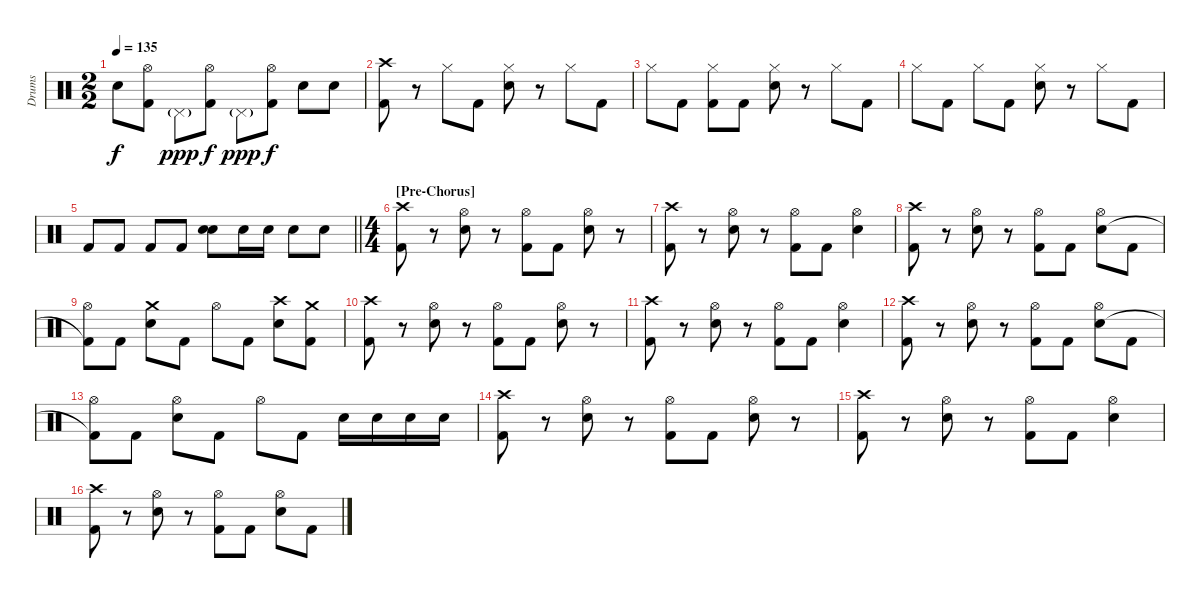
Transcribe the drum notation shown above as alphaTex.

\track ("Drums" "Drums") {instrument percussion}
\staff {score}
\articulation defaults
\ts (2 2)
\tempo 135
\clef neutral
\ks c "Snare (hit) 2".8{dy f}
("Hi-Hat (open)" "Kick (hit) 2").8 "Pedal Hi-Hat (hit)"{g}.8{dy ppp} ("Hi-Hat (open)" "Kick (hit) 2").8{dy f} "Pedal Hi-Hat (hit)"{g}.8{dy ppp} ("Hi-Hat (open)" "Kick (hit) 2").8{dy f} "Snare (hit) 2".8 "Snare (hit) 2".8 |
("Crash high (hit)" "Kick (hit) 2").8 r.8 "Hi-Hat (closed)".8 "Kick (hit) 2".8 ("Hi-Hat (closed)" "Snare (hit) 2").8 r.8 "Hi-Hat (closed)".8 "Kick (hit) 2".8 |
"Hi-Hat (closed)".8 "Kick (hit) 2".8 ("Hi-Hat (closed)" "Kick (hit) 2").8 "Kick (hit) 2".8 ("Hi-Hat (closed)" "Snare (hit) 2").8 r.8 "Hi-Hat (closed)".8 "Kick (hit) 2".8 |
"Hi-Hat (closed)".8 "Kick (hit) 2".8 "Hi-Hat (closed)".8 "Kick (hit) 2".8 ("Hi-Hat (closed)" "Snare (hit) 2").8 r.8 "Hi-Hat (closed)".8 "Kick (hit) 2".8 |
\barLineRight lightlight "Kick (hit) 2".8 "Kick (hit) 2".8 "Kick (hit) 2".8 "Kick (hit) 2".8
("Snare (hit) 2" "Snare (hit) 2").8{bd 480} "Snare (hit) 2".16 "Snare (hit) 2".16 "Snare (hit) 2".8 "Snare (hit) 2".8 |
\ts (4 4)
\section ("" "[Pre-Chorus]")
("Crash high (hit)" "Kick (hit) 2").8 r.8 ("Hi-Hat (open)" "Snare (hit) 2").8 r.8 ("Hi-Hat (open)" "Kick (hit) 2").8 "Kick (hit) 2".8 ("Hi-Hat (open)" "Snare (hit) 2").8 r.8 |
("Crash high (hit)" "Kick (hit) 2").8 r.8 ("Hi-Hat (open)" "Snare (hit) 2").8 r.8 ("Hi-Hat (open)" "Kick (hit) 2").8 "Kick (hit) 2".8 ("Hi-Hat (open)" "Snare (hit) 2").4 |
("Crash high (hit)" "Kick (hit) 2").8 r.8 ("Hi-Hat (open)" "Snare (hit) 2").8 r.8 ("Hi-Hat (open)" "Kick (hit) 2").8 "Kick (hit) 2".8 ("Hi-Hat (open)" "Snare (hit) 2").8 "Kick (hit) 2".8 |
("Hi-Hat (open)" "Kick (hit) 2"{t}).8 "Kick (hit) 2".8 ("Crash medium (hit)" "Snare (hit) 2").8 "Kick (hit) 2".8 "Hi-Hat (open)".8 "Kick (hit) 2".8 ("Crash high (hit)" "Snare (hit) 2").8 ("Crash medium (hit)" "Kick (hit) 2").8 |
("Crash high (hit)" "Kick (hit) 2").8 r.8 ("Hi-Hat (open)" "Snare (hit) 2").8 r.8 ("Hi-Hat (open)" "Kick (hit) 2").8 "Kick (hit) 2".8 ("Hi-Hat (open)" "Snare (hit) 2").8 r.8 |
("Crash high (hit)" "Kick (hit) 2").8 r.8 ("Hi-Hat (open)" "Snare (hit) 2").8 r.8 ("Hi-Hat (open)" "Kick (hit) 2").8 "Kick (hit) 2".8 ("Hi-Hat (open)" "Snare (hit) 2").4 |
("Crash high (hit)" "Kick (hit) 2").8 r.8 ("Hi-Hat (open)" "Snare (hit) 2").8 r.8 ("Hi-Hat (open)" "Kick (hit) 2").8 "Kick (hit) 2".8 ("Hi-Hat (open)" "Snare (hit) 2").8 "Kick (hit) 2".8 |
("Hi-Hat (open)" "Kick (hit) 2"{t}).8 "Kick (hit) 2".8 ("Hi-Hat (open)" "Snare (hit) 2").8 "Kick (hit) 2".8 "Hi-Hat (open)".8 "Kick (hit) 2".8 "Snare (hit) 2".16 "Snare (hit) 2".16 "Snare (hit) 2".16 "Snare (hit) 2".16 |
("Crash high (hit)" "Kick (hit) 2").8 r.8 ("Hi-Hat (open)" "Snare (hit) 2").8 r.8 ("Hi-Hat (open)" "Kick (hit) 2").8 "Kick (hit) 2".8 ("Hi-Hat (open)" "Snare (hit) 2").8 r.8 |
("Crash high (hit)" "Kick (hit) 2").8 r.8 ("Hi-Hat (open)" "Snare (hit) 2").8 r.8 ("Hi-Hat (open)" "Kick (hit) 2").8 "Kick (hit) 2".8 ("Hi-Hat (open)" "Snare (hit) 2").4 |
("Crash high (hit)" "Kick (hit) 2").8 r.8 ("Hi-Hat (open)" "Snare (hit) 2").8 r.8 ("Hi-Hat (open)" "Kick (hit) 2").8 "Kick (hit) 2".8 ("Hi-Hat (open)" "Snare (hit) 2").8 "Kick (hit) 2".8
